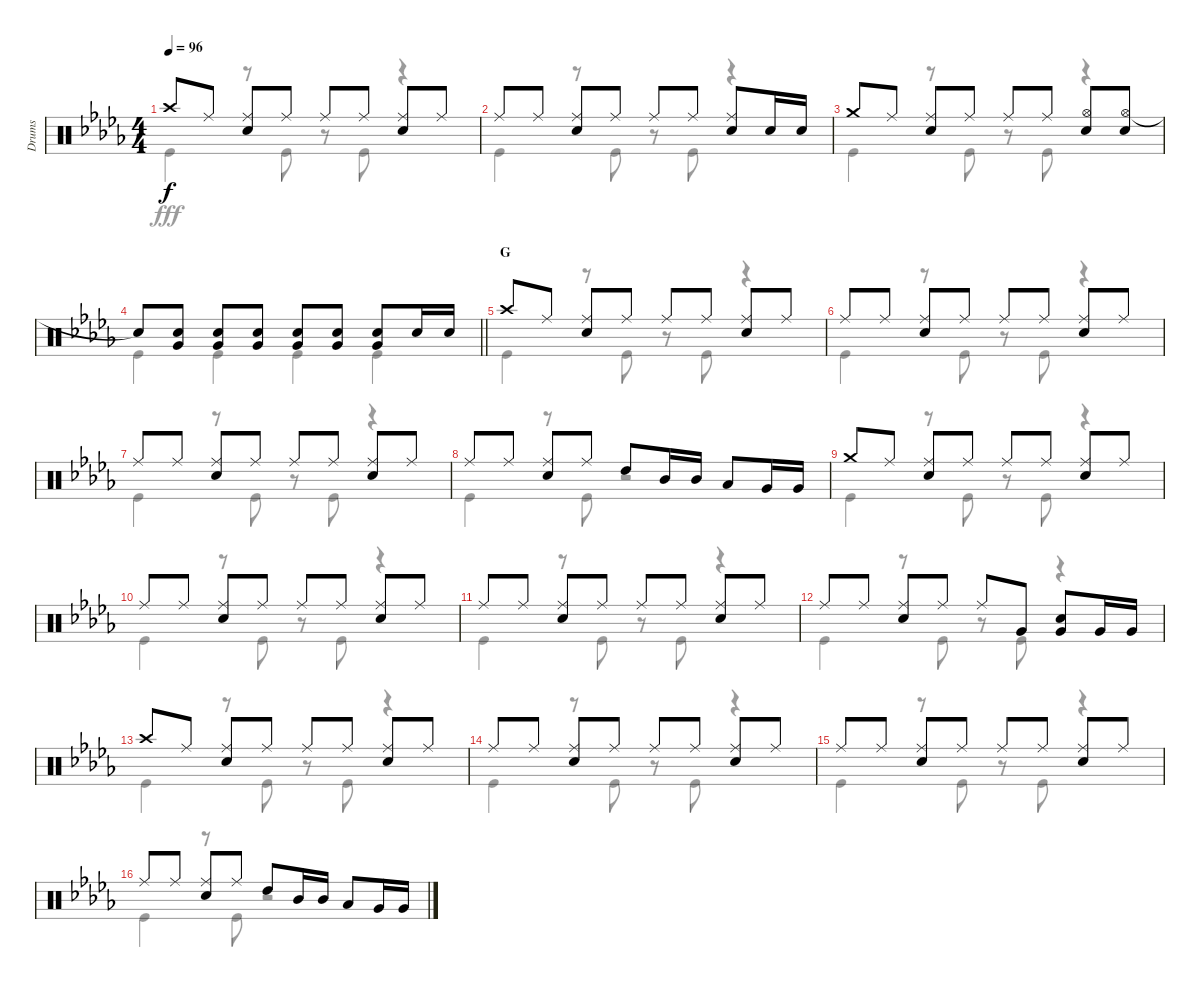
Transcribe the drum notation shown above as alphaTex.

\track ("Drums" "Drums") {instrument percussion}
\staff {score}
\articulation defaults
\voice
\ts (4 4)
\tempo 96
\clef neutral
\ks db "Crash high (hit)".8{dy f} "Ride (middle)".8
("Ride (middle)" "Snare (hit) 2").8 "Ride (middle)".8 "Ride (middle)".8 "Ride (middle)".8 ("Ride (middle)" "Snare (hit) 2").8 "Ride (middle)".8 |
"Ride (middle)".8 "Ride (middle)".8 ("Ride (middle)" "Snare (hit) 2").8 "Ride (middle)".8 "Ride (middle)".8 "Ride (middle)".8 ("Ride (middle)" "Snare (hit) 2").8 "Snare (hit) 2".16 "Snare (hit) 2".16 |
"Crash medium (hit)".8 "Ride (middle)".8 ("Ride (middle)" "Snare (hit) 2").8 "Ride (middle)".8 "Ride (middle)".8 "Ride (middle)".8 ("Hi-Hat (open)" "Snare (hit) 2").8 ("Hi-Hat (open)" "Snare (hit) 2").8 |
\barLineRight lightlight "Snare (hit)"{t}.8
("Snare (hit) 2" "Very Low Tom (hit)").8 ("Snare (hit) 2" "Very Low Tom (hit)").8 ("Snare (hit) 2" "Very Low Tom (hit)").8 ("Snare (hit) 2" "Very Low Tom (hit)").8 ("Snare (hit) 2" "Very Low Tom (hit)").8 ("Snare (hit) 2" "Very Low Tom (hit)").8 "Snare (hit) 2".16 "Snare (hit) 2".16 |
\section ("" "G")
"Crash high (hit)".8 "Ride (middle)".8 ("Ride (middle)" "Snare (hit) 2").8 "Ride (middle)".8 "Ride (middle)".8 "Ride (middle)".8 ("Ride (middle)" "Snare (hit) 2").8 "Ride (middle)".8 |
"Ride (middle)".8 "Ride (middle)".8 ("Ride (middle)" "Snare (hit) 2").8 "Ride (middle)".8 "Ride (middle)".8 "Ride (middle)".8 ("Ride (middle)" "Snare (hit) 2").8 "Ride (middle)".8 |
"Ride (middle)".8 "Ride (middle)".8 ("Ride (middle)" "Snare (hit) 2").8 "Ride (middle)".8 "Ride (middle)".8 "Ride (middle)".8 ("Ride (middle)" "Snare (hit) 2").8 "Ride (middle)".8 |
"Ride (middle)".8 "Ride (middle)".8 ("Ride (middle)" "Snare (hit) 2").8 "Ride (middle)".8 "High Tom (hit)".8 "Mid Tom (hit)".16 "Mid Tom (hit)".16 "Low Tom (hit)".8 "Very Low Tom (hit)".16 "Very Low Tom (hit)".16 |
"Crash medium (hit)".8 "Ride (middle)".8 ("Ride (middle)" "Snare (hit) 2").8 "Ride (middle)".8 "Ride (middle)".8 "Ride (middle)".8 ("Ride (middle)" "Snare (hit) 2").8 "Ride (middle)".8 |
"Ride (middle)".8 "Ride (middle)".8 ("Ride (middle)" "Snare (hit) 2").8 "Ride (middle)".8 "Ride (middle)".8 "Ride (middle)".8 ("Ride (middle)" "Snare (hit) 2").8 "Ride (middle)".8 |
"Ride (middle)".8 "Ride (middle)".8 ("Ride (middle)" "Snare (hit) 2").8 "Ride (middle)".8 "Ride (middle)".8 "Ride (middle)".8 ("Ride (middle)" "Snare (hit) 2").8 "Ride (middle)".8 |
"Ride (middle)".8 "Ride (middle)".8 ("Ride (middle)" "Snare (hit) 2").8 "Ride (middle)".8 "Ride (middle)".8 "Very Low Tom (hit)".8 ("Snare (hit) 2" "Very Low Tom (hit)").8 "Very Low Tom (hit)".16 "Very Low Tom (hit)".16 |
"Crash high (hit)".8 "Ride (middle)".8 ("Ride (middle)" "Snare (hit) 2").8 "Ride (middle)".8 "Ride (middle)".8 "Ride (middle)".8 ("Ride (middle)" "Snare (hit) 2").8 "Ride (middle)".8 |
"Ride (middle)".8 "Ride (middle)".8 ("Ride (middle)" "Snare (hit) 2").8 "Ride (middle)".8 "Ride (middle)".8 "Ride (middle)".8 ("Ride (middle)" "Snare (hit) 2").8 "Ride (middle)".8 |
"Ride (middle)".8 "Ride (middle)".8 ("Ride (middle)" "Snare (hit) 2").8 "Ride (middle)".8 "Ride (middle)".8 "Ride (middle)".8 ("Ride (middle)" "Snare (hit) 2").8 "Ride (middle)".8 |
"Ride (middle)".8 "Ride (middle)".8 ("Ride (middle)" "Snare (hit) 2").8 "Ride (middle)".8 "High Tom (hit)".8 "Mid Tom (hit)".16 "Mid Tom (hit)".16 "Low Tom (hit)".8 "Very Low Tom (hit)".16 "Very Low Tom (hit)".16
\voice
\clef neutral
\ottava regular
\simile none
\ks db "Kick (hit)".4{dy fff}
r.8 "Kick (hit)".8 r.8 "Kick (hit)".8 r.4 |
"Kick (hit)".4 r.8 "Kick (hit)".8 r.8 "Kick (hit)".8 r.4 |
"Kick (hit)".4 r.8 "Kick (hit)".8 r.8 "Kick (hit)".8 r.4 |
\barLineRight lightlight "Kick (hit)".4 "Kick (hit)".4 "Kick (hit)".4 "Kick (hit)".4
|
"Kick (hit)".4 r.8 "Kick (hit)".8 r.8 "Kick (hit)".8 r.4 |
"Kick (hit)".4 r.8 "Kick (hit)".8 r.8 "Kick (hit)".8 r.4 |
"Kick (hit)".4 r.8 "Kick (hit)".8 r.8 "Kick (hit)".8 r.4 |
"Kick (hit)".4 r.8 "Kick (hit)".8 r.2 |
"Kick (hit)".4 r.8 "Kick (hit)".8 r.8 "Kick (hit)".8 r.4 |
"Kick (hit)".4 r.8 "Kick (hit)".8 r.8 "Kick (hit)".8 r.4 |
"Kick (hit)".4 r.8 "Kick (hit)".8 r.8 "Kick (hit)".8 r.4 |
"Kick (hit)".4 r.8 "Kick (hit)".8 r.8 "Kick (hit)".8 r.4 |
"Kick (hit)".4 r.8 "Kick (hit)".8 r.8 "Kick (hit)".8 r.4 |
"Kick (hit)".4 r.8 "Kick (hit)".8 r.8 "Kick (hit)".8 r.4 |
"Kick (hit)".4 r.8 "Kick (hit)".8 r.8 "Kick (hit)".8 r.4 |
"Kick (hit)".4 r.8 "Kick (hit)".8 r.2
